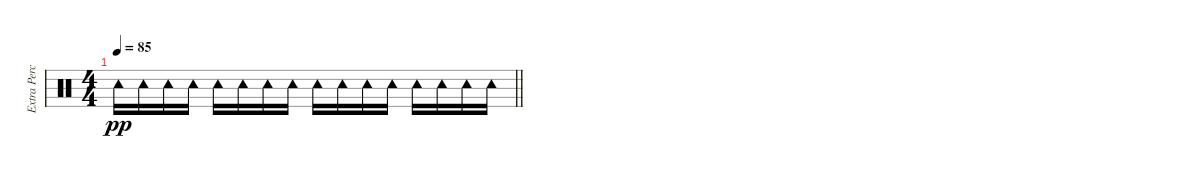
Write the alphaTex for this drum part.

\track ("Extra Percussion" "Extra Perc") {instrument percussion}
\staff {score}
\articulation defaults
\ts (4 4)
\tempo 85
\clef neutral
\barLineRight lightlight
\ks c "Tambourine (hit)".16{dy pp} "Tambourine (hit)".16 "Tambourine (hit)".16 "Tambourine (hit)".16 "Tambourine (hit)".16 "Tambourine (hit)".16 "Tambourine (hit)".16 "Tambourine (hit)".16 "Tambourine (hit)".16 "Tambourine (hit)".16 "Tambourine (hit)".16 "Tambourine (hit)".16 "Tambourine (hit)".16 "Tambourine (hit)".16 "Tambourine (hit)".16 "Tambourine (hit)".16
